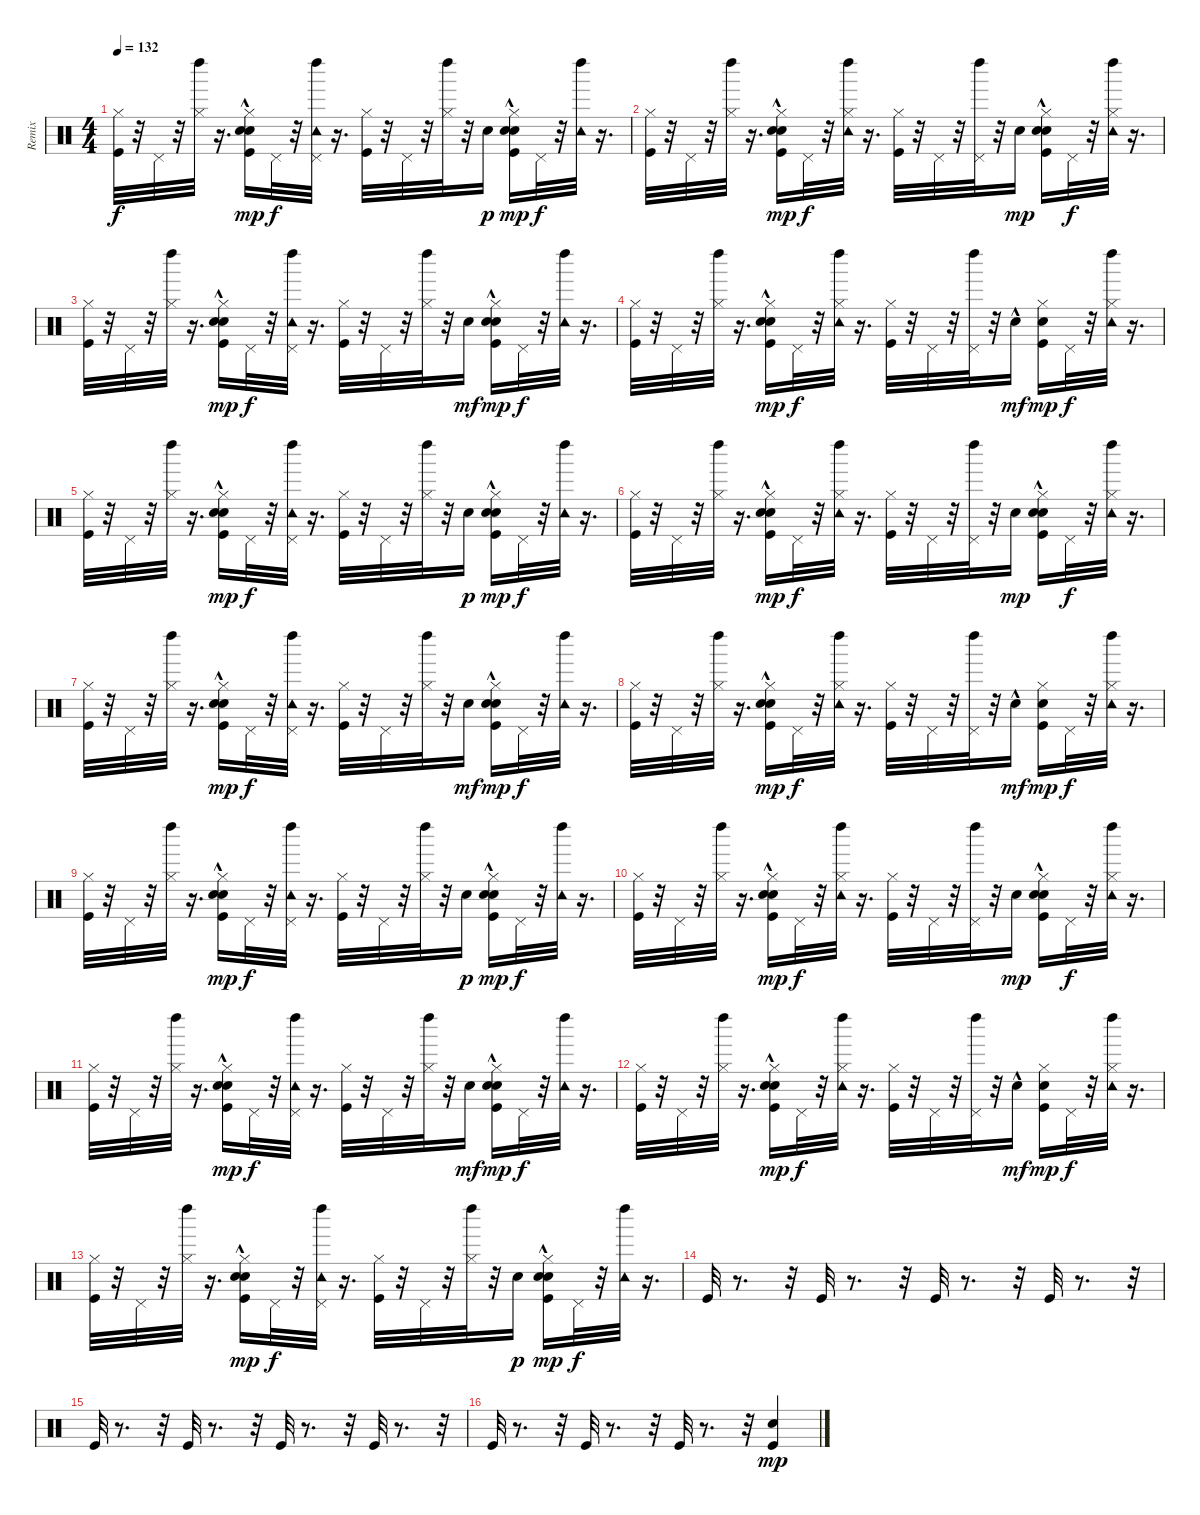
\track ("Remix" "Remix") {instrument percussion}
\staff {score}
\articulation defaults
\ts (4 4)
\tempo 132
\clef neutral
\ks c
("Hi-Hat (closed)" "Kick (hit)").32{dy f volume 11} r.32 "Pedal Hi-Hat (hit)".32 r.32 ("Left Maraca (hit)" "Hi-Hat (closed)").32 r.16{d} ("Kick (hit)" "Hi-Hat (closed)" "Hand Clap (hit)" "Electric Snare (hit)"{hac}).16{dy mp} "Pedal Hi-Hat (hit)".32{dy f} r.32 ("Tambourine (hit)" "Left Maraca (hit)" "Pedal Hi-Hat (hit)").32 r.16{d} ("Hi-Hat (closed)" "Kick (hit)").32 r.32 "Pedal Hi-Hat (hit)".32 r.32 ("Hi-Hat (closed)" "Left Maraca (hit)").32 r.32 "Hand Clap (hit)".16{dy p} ("Kick (hit)" "Hi-Hat (closed)" "Hand Clap (hit)" "Electric Snare (hit)"{hac}).16{dy mp} "Pedal Hi-Hat (hit)".32{dy f} r.32 ("Tambourine (hit)" "Left Maraca (hit)").32 r.16{d} |
("Hi-Hat (closed)" "Kick (hit)").32 r.32 "Pedal Hi-Hat (hit)".32 r.32 ("Left Maraca (hit)" "Hi-Hat (closed)").32 r.16{d} ("Hi-Hat (closed)" "Kick (hit)" "Hand Clap (hit)" "Electric Snare (hit)"{hac}).16{dy mp} "Pedal Hi-Hat (hit)".32{dy f} r.32 ("Hi-Hat (closed)" "Tambourine (hit)" "Left Maraca (hit)").32 r.16{d} ("Hi-Hat (closed)" "Kick (hit)").32 r.32 "Pedal Hi-Hat (hit)".32 r.32 ("Left Maraca (hit)" "Pedal Hi-Hat (hit)").32 r.32 "Hand Clap (hit)".16{dy mp} ("Kick (hit)" "Hi-Hat (closed)" "Hand Clap (hit)" "Electric Snare (hit)"{hac}).16 "Pedal Hi-Hat (hit)".32{dy f} r.32 ("Hi-Hat (closed)" "Left Maraca (hit)" "Tambourine (hit)").32 r.16{d} |
("Hi-Hat (closed)" "Kick (hit)").32{volume 11} r.32 "Pedal Hi-Hat (hit)".32 r.32 ("Left Maraca (hit)" "Hi-Hat (closed)").32 r.16{d} ("Hand Clap (hit)" "Kick (hit)" "Hi-Hat (closed)" "Electric Snare (hit)"{hac}).16{dy mp} "Pedal Hi-Hat (hit)".32{dy f} r.32 ("Tambourine (hit)" "Left Maraca (hit)" "Pedal Hi-Hat (hit)").32 r.16{d} ("Hi-Hat (closed)" "Kick (hit)").32 r.32 "Pedal Hi-Hat (hit)".32 r.32 ("Hi-Hat (closed)" "Left Maraca (hit)").32 r.32 "Hand Clap (hit)".16{dy mf} ("Hand Clap (hit)" "Kick (hit)" "Hi-Hat (closed)" "Electric Snare (hit)"{hac}).16{dy mp} "Pedal Hi-Hat (hit)".32{dy f} r.32 ("Tambourine (hit)" "Left Maraca (hit)").32 r.16{d} |
("Hi-Hat (closed)" "Kick (hit)").32 r.32 "Pedal Hi-Hat (hit)".32 r.32 ("Left Maraca (hit)" "Hi-Hat (closed)").32 r.16{d} ("Hand Clap (hit)"{hac} "Hi-Hat (closed)" "Kick (hit)" "Electric Snare (hit)"{hac}).16{dy mp} "Pedal Hi-Hat (hit)".32{dy f} r.32 ("Hi-Hat (closed)" "Tambourine (hit)" "Left Maraca (hit)").32 r.16{d} ("Hi-Hat (closed)" "Kick (hit)").32 r.32 "Pedal Hi-Hat (hit)".32 r.32 ("Left Maraca (hit)" "Pedal Hi-Hat (hit)").32 r.32 "Hand Clap (hit)"{hac}.16{dy mf} ("Kick (hit)" "Hi-Hat (closed)" "Electric Snare (hit)").16{dy mp} "Pedal Hi-Hat (hit)".32{dy f} r.32 ("Hi-Hat (closed)" "Left Maraca (hit)" "Tambourine (hit)").32 r.16{d} |
("Hi-Hat (closed)" "Kick (hit)").32{volume 11} r.32 "Pedal Hi-Hat (hit)".32 r.32 ("Left Maraca (hit)" "Hi-Hat (closed)").32 r.16{d} ("Kick (hit)" "Hi-Hat (closed)" "Hand Clap (hit)" "Electric Snare (hit)"{hac}).16{dy mp} "Pedal Hi-Hat (hit)".32{dy f} r.32 ("Tambourine (hit)" "Left Maraca (hit)" "Pedal Hi-Hat (hit)").32 r.16{d} ("Hi-Hat (closed)" "Kick (hit)").32 r.32 "Pedal Hi-Hat (hit)".32 r.32 ("Hi-Hat (closed)" "Left Maraca (hit)").32 r.32 "Hand Clap (hit)".16{dy p} ("Kick (hit)" "Hi-Hat (closed)" "Hand Clap (hit)" "Electric Snare (hit)"{hac}).16{dy mp} "Pedal Hi-Hat (hit)".32{dy f} r.32 ("Tambourine (hit)" "Left Maraca (hit)").32 r.16{d} |
("Hi-Hat (closed)" "Kick (hit)").32 r.32 "Pedal Hi-Hat (hit)".32 r.32 ("Left Maraca (hit)" "Hi-Hat (closed)").32 r.16{d} ("Hi-Hat (closed)" "Kick (hit)" "Hand Clap (hit)" "Electric Snare (hit)"{hac}).16{dy mp} "Pedal Hi-Hat (hit)".32{dy f} r.32 ("Hi-Hat (closed)" "Tambourine (hit)" "Left Maraca (hit)").32 r.16{d} ("Hi-Hat (closed)" "Kick (hit)").32 r.32 "Pedal Hi-Hat (hit)".32 r.32 ("Left Maraca (hit)" "Pedal Hi-Hat (hit)").32 r.32 "Hand Clap (hit)".16{dy mp} ("Kick (hit)" "Hi-Hat (closed)" "Hand Clap (hit)" "Electric Snare (hit)"{hac}).16 "Pedal Hi-Hat (hit)".32{dy f} r.32 ("Hi-Hat (closed)" "Left Maraca (hit)" "Tambourine (hit)").32 r.16{d} |
("Hi-Hat (closed)" "Kick (hit)").32{volume 11} r.32 "Pedal Hi-Hat (hit)".32 r.32 ("Left Maraca (hit)" "Hi-Hat (closed)").32 r.16{d} ("Hand Clap (hit)" "Kick (hit)" "Hi-Hat (closed)" "Electric Snare (hit)"{hac}).16{dy mp} "Pedal Hi-Hat (hit)".32{dy f} r.32 ("Tambourine (hit)" "Left Maraca (hit)" "Pedal Hi-Hat (hit)").32 r.16{d} ("Hi-Hat (closed)" "Kick (hit)").32 r.32 "Pedal Hi-Hat (hit)".32 r.32 ("Hi-Hat (closed)" "Left Maraca (hit)").32 r.32 "Hand Clap (hit)".16{dy mf} ("Hand Clap (hit)" "Kick (hit)" "Hi-Hat (closed)" "Electric Snare (hit)"{hac}).16{dy mp} "Pedal Hi-Hat (hit)".32{dy f} r.32 ("Tambourine (hit)" "Left Maraca (hit)").32 r.16{d} |
("Hi-Hat (closed)" "Kick (hit)").32 r.32 "Pedal Hi-Hat (hit)".32 r.32 ("Left Maraca (hit)" "Hi-Hat (closed)").32 r.16{d} ("Hand Clap (hit)"{hac} "Hi-Hat (closed)" "Kick (hit)" "Electric Snare (hit)"{hac}).16{dy mp} "Pedal Hi-Hat (hit)".32{dy f} r.32 ("Hi-Hat (closed)" "Tambourine (hit)" "Left Maraca (hit)").32 r.16{d} ("Hi-Hat (closed)" "Kick (hit)").32 r.32 "Pedal Hi-Hat (hit)".32 r.32 ("Left Maraca (hit)" "Pedal Hi-Hat (hit)").32 r.32 "Hand Clap (hit)"{hac}.16{dy mf} ("Kick (hit)" "Hi-Hat (closed)" "Electric Snare (hit)").16{dy mp} "Pedal Hi-Hat (hit)".32{dy f} r.32 ("Hi-Hat (closed)" "Left Maraca (hit)" "Tambourine (hit)").32 r.16{d} |
("Hi-Hat (closed)" "Kick (hit)").32{volume 11} r.32 "Pedal Hi-Hat (hit)".32 r.32 ("Left Maraca (hit)" "Hi-Hat (closed)").32 r.16{d} ("Kick (hit)" "Hi-Hat (closed)" "Hand Clap (hit)" "Electric Snare (hit)"{hac}).16{dy mp} "Pedal Hi-Hat (hit)".32{dy f} r.32 ("Tambourine (hit)" "Left Maraca (hit)" "Pedal Hi-Hat (hit)").32 r.16{d} ("Hi-Hat (closed)" "Kick (hit)").32 r.32 "Pedal Hi-Hat (hit)".32 r.32 ("Hi-Hat (closed)" "Left Maraca (hit)").32 r.32 "Hand Clap (hit)".16{dy p} ("Kick (hit)" "Hi-Hat (closed)" "Hand Clap (hit)" "Electric Snare (hit)"{hac}).16{dy mp} "Pedal Hi-Hat (hit)".32{dy f} r.32 ("Tambourine (hit)" "Left Maraca (hit)").32 r.16{d} |
("Hi-Hat (closed)" "Kick (hit)").32 r.32 "Pedal Hi-Hat (hit)".32 r.32 ("Left Maraca (hit)" "Hi-Hat (closed)").32 r.16{d} ("Hi-Hat (closed)" "Kick (hit)" "Hand Clap (hit)" "Electric Snare (hit)"{hac}).16{dy mp} "Pedal Hi-Hat (hit)".32{dy f} r.32 ("Hi-Hat (closed)" "Tambourine (hit)" "Left Maraca (hit)").32 r.16{d} ("Hi-Hat (closed)" "Kick (hit)").32 r.32 "Pedal Hi-Hat (hit)".32 r.32 ("Left Maraca (hit)" "Pedal Hi-Hat (hit)").32 r.32 "Hand Clap (hit)".16{dy mp} ("Kick (hit)" "Hi-Hat (closed)" "Hand Clap (hit)" "Electric Snare (hit)"{hac}).16 "Pedal Hi-Hat (hit)".32{dy f} r.32 ("Hi-Hat (closed)" "Left Maraca (hit)" "Tambourine (hit)").32 r.16{d} |
("Hi-Hat (closed)" "Kick (hit)").32{volume 11} r.32 "Pedal Hi-Hat (hit)".32 r.32 ("Left Maraca (hit)" "Hi-Hat (closed)").32 r.16{d} ("Hand Clap (hit)" "Kick (hit)" "Hi-Hat (closed)" "Electric Snare (hit)"{hac}).16{dy mp} "Pedal Hi-Hat (hit)".32{dy f} r.32 ("Tambourine (hit)" "Left Maraca (hit)" "Pedal Hi-Hat (hit)").32 r.16{d} ("Hi-Hat (closed)" "Kick (hit)").32 r.32 "Pedal Hi-Hat (hit)".32 r.32 ("Hi-Hat (closed)" "Left Maraca (hit)").32 r.32 "Hand Clap (hit)".16{dy mf} ("Hand Clap (hit)" "Kick (hit)" "Hi-Hat (closed)" "Electric Snare (hit)"{hac}).16{dy mp} "Pedal Hi-Hat (hit)".32{dy f} r.32 ("Tambourine (hit)" "Left Maraca (hit)").32 r.16{d} |
("Hi-Hat (closed)" "Kick (hit)").32 r.32 "Pedal Hi-Hat (hit)".32 r.32 ("Left Maraca (hit)" "Hi-Hat (closed)").32 r.16{d} ("Hand Clap (hit)"{hac} "Hi-Hat (closed)" "Kick (hit)" "Electric Snare (hit)"{hac}).16{dy mp} "Pedal Hi-Hat (hit)".32{dy f} r.32 ("Hi-Hat (closed)" "Tambourine (hit)" "Left Maraca (hit)").32 r.16{d} ("Hi-Hat (closed)" "Kick (hit)").32 r.32 "Pedal Hi-Hat (hit)".32 r.32 ("Left Maraca (hit)" "Pedal Hi-Hat (hit)").32 r.32 "Hand Clap (hit)"{hac}.16{dy mf} ("Kick (hit)" "Hi-Hat (closed)" "Electric Snare (hit)").16{dy mp} "Pedal Hi-Hat (hit)".32{dy f} r.32 ("Hi-Hat (closed)" "Left Maraca (hit)" "Tambourine (hit)").32 r.16{d} |
("Hi-Hat (closed)" "Kick (hit)").32{volume 11} r.32 "Pedal Hi-Hat (hit)".32 r.32 ("Left Maraca (hit)" "Hi-Hat (closed)").32 r.16{d} ("Kick (hit)" "Hi-Hat (closed)" "Hand Clap (hit)" "Electric Snare (hit)"{hac}).16{dy mp} "Pedal Hi-Hat (hit)".32{dy f} r.32 ("Tambourine (hit)" "Left Maraca (hit)" "Pedal Hi-Hat (hit)").32 r.16{d} ("Hi-Hat (closed)" "Kick (hit)").32 r.32 "Pedal Hi-Hat (hit)".32 r.32 ("Hi-Hat (closed)" "Left Maraca (hit)").32 r.32 "Hand Clap (hit)".16{dy p} ("Kick (hit)" "Hi-Hat (closed)" "Hand Clap (hit)" "Electric Snare (hit)"{hac}).16{dy mp} "Pedal Hi-Hat (hit)".32{dy f} r.32 ("Tambourine (hit)" "Left Maraca (hit)").32 r.16{d} |
"Kick (hit)".32 r.8{d} r.32 "Kick (hit)".32 r.8{d} r.32 "Kick (hit)".32 r.8{d} r.32 "Kick (hit)".32 r.8{d} r.32 |
"Kick (hit)".32{volume 11} r.8{d} r.32 "Kick (hit)".32 r.8{d} r.32 "Kick (hit)".32 r.8{d} r.32 "Kick (hit)".32 r.8{d} r.32 |
"Kick (hit)".32 r.8{d} r.32 "Kick (hit)".32 r.8{d} r.32 "Kick (hit)".32 r.8{d} r.32 ("Kick (hit)" "Electric Snare (hit)").4{dy mp}
